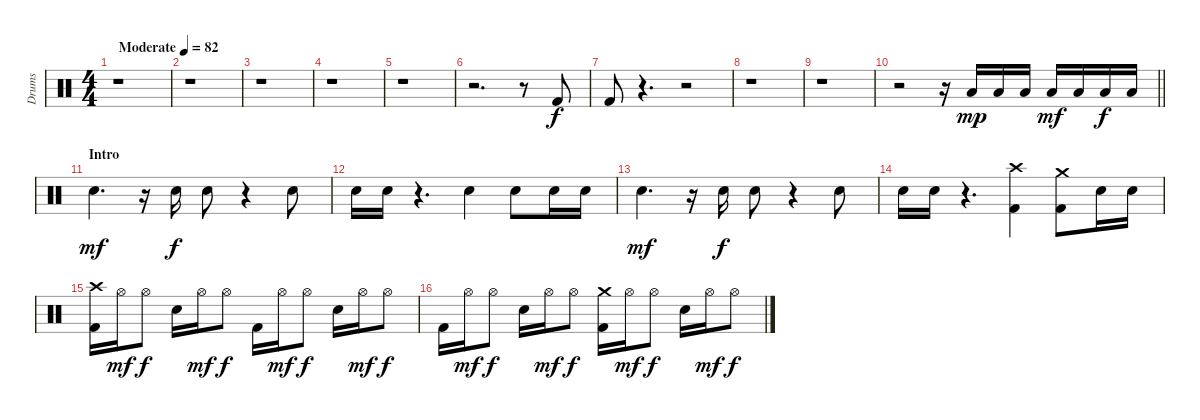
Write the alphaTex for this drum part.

\track ("Drums" "Drums") {instrument percussion}
\staff {score}
\articulation defaults
\ts (4 4)
\tempo (82 "Moderate")
\clef neutral
\ks c
r.1{dy f} |
r.1 |
r.1 |
r.1 |
r.1 |
r.2{d} r.8 "Kick (hit) 2".8 |
"Kick (hit) 2".8 r.4{d} r.2 |
r.1 |
r.1 |
\barLineRight lightlight
r.2 r.16 "Low Floor Tom (hit)".16{dy mp} "Low Floor Tom (hit)".16 "Low Floor Tom (hit)".16 "Low Floor Tom (hit)".16{dy mf} "Low Floor Tom (hit)".16 "Low Floor Tom (hit)".16{dy f} "Low Floor Tom (hit)".16 |
\section ("" "Intro")
"Snare (hit) 2".4{d dy mf} r.16 "Snare (hit) 2".16{dy f} "Snare (hit) 2".8 r.4 "Snare (hit) 2".8 |
"Snare (hit) 2".16 "Snare (hit) 2".16 r.4{d} "Snare (hit) 2".4 "Snare (hit) 2".8 "Snare (hit) 2".16 "Snare (hit) 2".16 |
"Snare (hit) 2".4{d dy mf} r.16 "Snare (hit) 2".16{dy f} "Snare (hit) 2".8 r.4 "Snare (hit) 2".8 |
"Snare (hit) 2".16 "Snare (hit) 2".16 r.4{d} ("Crash high (hit)" "Kick (hit) 2").4 ("Crash medium (hit)" "Kick (hit) 2").8 "Snare (hit) 2".16 "Snare (hit) 2".16 |
("Crash high (hit)" "Kick (hit) 2").16 "Hi-Hat (open)".16{dy mf} "Hi-Hat (open)".8{dy f} "Snare (hit) 2".16 "Hi-Hat (open)".16{dy mf} "Hi-Hat (open)".8{dy f} "Kick (hit) 2".16 "Hi-Hat (open)".16{dy mf} "Hi-Hat (open)".8{dy f} "Snare (hit) 2".16 "Hi-Hat (open)".16{dy mf} "Hi-Hat (open)".8{dy f} |
"Kick (hit) 2".16 "Hi-Hat (open)".16{dy mf} "Hi-Hat (open)".8{dy f} "Snare (hit) 2".16 "Hi-Hat (open)".16{dy mf} "Hi-Hat (open)".8{dy f} ("Crash medium (hit)" "Kick (hit) 2").16 "Hi-Hat (open)".16{dy mf} "Hi-Hat (open)".8{dy f} "Snare (hit) 2".16 "Hi-Hat (open)".16{dy mf} "Hi-Hat (open)".8{dy f}
